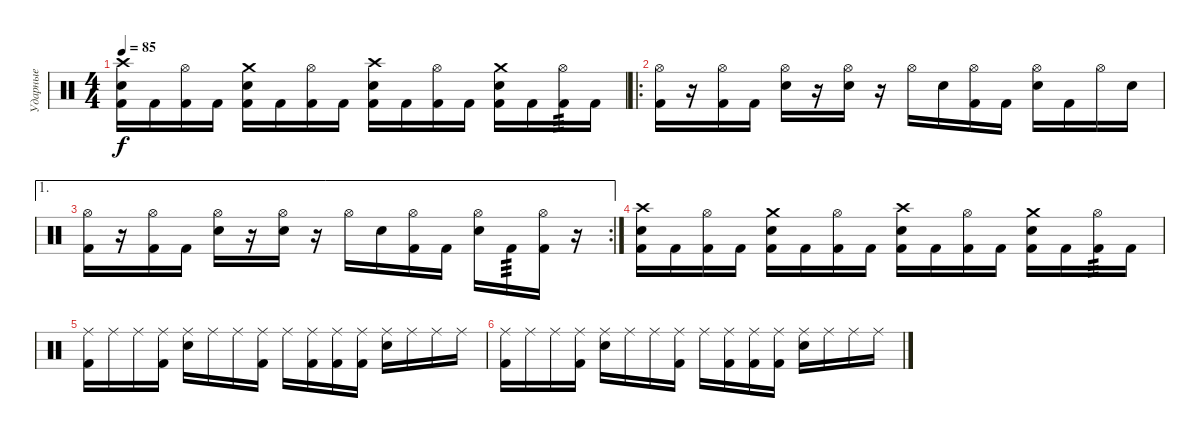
\track ("Ударные" "Ударные") {instrument percussion}
\staff {score}
\articulation defaults
\ts (4 4)
\tempo 85
\clef neutral
\ks c
("Crash high (hit)" "Electric Snare (hit)" "Kick (hit) 2").16{dy f} "Kick (hit) 2".16 ("Hi-Hat (open)" "Kick (hit) 2").16 "Kick (hit) 2".16 ("Crash medium (hit)" "Electric Snare (hit)" "Kick (hit) 2").16 "Kick (hit) 2".16 ("Hi-Hat (open)" "Kick (hit) 2").16 "Kick (hit) 2".16 ("Crash high (hit)" "Electric Snare (hit)" "Kick (hit) 2").16 "Kick (hit) 2".16 ("Hi-Hat (open)" "Kick (hit) 2").16 "Kick (hit) 2".16 ("Crash medium (hit)" "Electric Snare (hit)" "Kick (hit) 2").16 "Kick (hit) 2".16 ("Hi-Hat (open)" "Kick (hit) 2").16{tp 3} "Kick (hit) 2".16 |
\ro
("Hi-Hat (open)" "Kick (hit) 2").16 r.16 ("Hi-Hat (open)" "Kick (hit) 2").16 "Kick (hit) 2".16 ("Hi-Hat (open)" "Electric Snare (hit)").16 r.16 ("Hi-Hat (open)" "Electric Snare (hit)").16 r.16 "Hi-Hat (open)".16 "Electric Snare (hit)".16 ("Hi-Hat (open)" "Kick (hit) 2").16 "Kick (hit) 2".16 ("Hi-Hat (open)" "Electric Snare (hit)").16 "Kick (hit) 2".16 "Hi-Hat (open)".16 "Electric Snare (hit)".16 |
\ae 1
\rc 2
("Hi-Hat (open)" "Kick (hit) 2").16 r.16 ("Hi-Hat (open)" "Kick (hit) 2").16 "Kick (hit) 2".16 ("Hi-Hat (open)" "Electric Snare (hit)").16 r.16 ("Hi-Hat (open)" "Electric Snare (hit)").16 r.16 "Hi-Hat (open)".16 "Electric Snare (hit)".16 ("Hi-Hat (open)" "Kick (hit) 2").16 "Kick (hit) 2".16 ("Hi-Hat (open)" "Electric Snare (hit)").16 "Kick (hit) 2".16{tp 3} ("Hi-Hat (open)" "Kick (hit) 2").16 r.16 |
("Crash high (hit)" "Electric Snare (hit)" "Kick (hit) 2").16 "Kick (hit) 2".16 ("Hi-Hat (open)" "Kick (hit) 2").16 "Kick (hit) 2".16 ("Crash medium (hit)" "Electric Snare (hit)" "Kick (hit) 2").16 "Kick (hit) 2".16 ("Hi-Hat (open)" "Kick (hit) 2").16 "Kick (hit) 2".16 ("Crash high (hit)" "Electric Snare (hit)" "Kick (hit) 2").16 "Kick (hit) 2".16 ("Hi-Hat (open)" "Kick (hit) 2").16 "Kick (hit) 2".16 ("Crash medium (hit)" "Electric Snare (hit)" "Kick (hit) 2").16 "Kick (hit) 2".16 ("Hi-Hat (open)" "Kick (hit) 2").16{tp 3} "Kick (hit) 2".16 |
("Ride (middle)" "Kick (hit) 2").16 "Ride (middle)".16 "Ride (middle)".16 ("Ride (middle)" "Kick (hit) 2").16 ("Ride (middle)" "Electric Snare (hit)").16 "Ride (middle)".16 "Ride (middle)".16 ("Ride (middle)" "Kick (hit) 2").16 "Ride (middle)".16 ("Ride (middle)" "Kick (hit) 2").16 ("Ride (middle)" "Kick (hit) 2").16 ("Ride (middle)" "Kick (hit) 2").16 ("Ride (middle)" "Electric Snare (hit)").16 "Ride (middle)".16 "Ride (middle)".16 "Ride (middle)".16 |
("Ride (middle)" "Kick (hit) 2").16 "Ride (middle)".16 "Ride (middle)".16 ("Ride (middle)" "Kick (hit) 2").16 ("Ride (middle)" "Electric Snare (hit)").16 "Ride (middle)".16 "Ride (middle)".16 ("Ride (middle)" "Kick (hit) 2").16 "Ride (middle)".16 ("Ride (middle)" "Kick (hit) 2").16 ("Ride (middle)" "Kick (hit) 2").16 ("Ride (middle)" "Kick (hit) 2").16 ("Ride (middle)" "Electric Snare (hit)").16 "Ride (middle)".16 "Ride (middle)".16 "Ride (middle)".16
